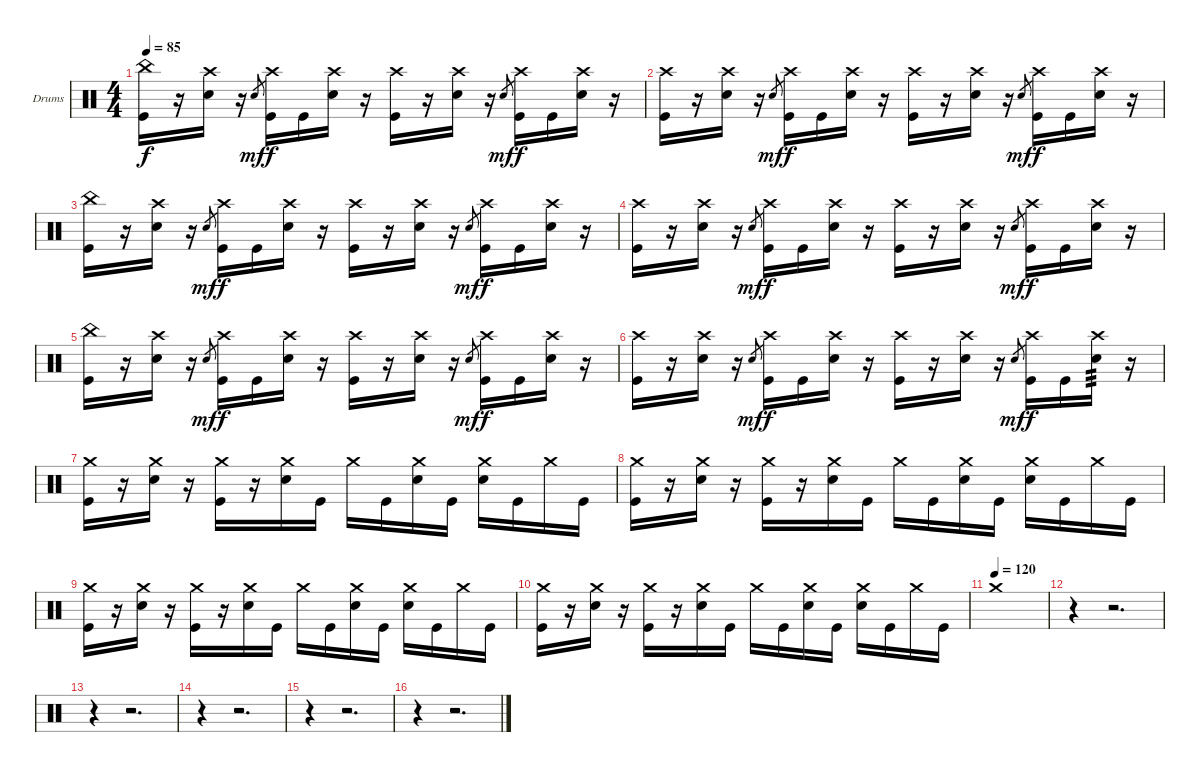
\defaultSystemsLayout 4
\bracketExtendMode groupsimilarinstruments
\firstSystemTrackNameOrientation horizontal
\otherSystemsTrackNameOrientation horizontal
\track ("Drumkit" "Drums") {instrument percussion}
\staff {score}
\articulation defaults
\ts (4 4)
\tempo 85
\clef neutral
\scale
0.333333
\ks c
("China (hit)" "Kick (hit)").16{dy f} r.16 ("Crash high (hit)" "Snare (hit) 2").16 r.16 "Snare (hit) 2".8{gr dy mf} ("Crash high (hit)" "Kick (hit)").16{dy f} "Kick (hit)".16 ("Crash high (hit)" "Snare (hit) 2").16 r.16 ("Crash high (hit)" "Kick (hit)").16 r.16 ("Crash high (hit)" "Snare (hit) 2").16 r.16 "Snare (hit) 2".8{gr dy mf} ("Crash high (hit)" "Kick (hit)").16{dy f} "Kick (hit)".16 ("Crash high (hit)" "Snare (hit) 2").16 r.16 |
\scale
0.333333 ("Crash high (hit)" "Kick (hit)").16 r.16 ("Crash high (hit)" "Snare (hit) 2").16 r.16 "Snare (hit) 2".8{gr dy mf} ("Crash high (hit)" "Kick (hit)").16{dy f} "Kick (hit)".16 ("Crash high (hit)" "Snare (hit) 2").16 r.16 ("Crash high (hit)" "Kick (hit)").16 r.16 ("Crash high (hit)" "Snare (hit) 2").16 r.16 "Snare (hit) 2".8{gr dy mf} ("Crash high (hit)" "Kick (hit)").16{dy f} "Kick (hit)".16 ("Crash high (hit)" "Snare (hit) 2").16 r.16 |
\scale
0.333333 ("China (hit)" "Kick (hit)").16 r.16 ("Crash high (hit)" "Snare (hit) 2").16 r.16 "Snare (hit) 2".8{gr dy mf} ("Crash high (hit)" "Kick (hit)").16{dy f} "Kick (hit)".16 ("Crash high (hit)" "Snare (hit) 2").16 r.16 ("Crash high (hit)" "Kick (hit)").16 r.16 ("Crash high (hit)" "Snare (hit) 2").16 r.16 "Snare (hit) 2".8{gr dy mf} ("Crash high (hit)" "Kick (hit)").16{dy f} "Kick (hit)".16 ("Crash high (hit)" "Snare (hit) 2").16 r.16 |
\scale
0.333333 ("Crash high (hit)" "Kick (hit)").16 r.16 ("Crash high (hit)" "Snare (hit) 2").16 r.16 "Snare (hit) 2".8{gr dy mf} ("Crash high (hit)" "Kick (hit)").16{dy f} "Kick (hit)".16 ("Crash high (hit)" "Snare (hit) 2").16 r.16 ("Crash high (hit)" "Kick (hit)").16 r.16 ("Crash high (hit)" "Snare (hit) 2").16 r.16 "Snare (hit) 2".8{gr dy mf} ("Crash high (hit)" "Kick (hit)").16{dy f} "Kick (hit)".16 ("Crash high (hit)" "Snare (hit) 2").16 r.16 |
\scale
0.333333 ("China (hit)" "Kick (hit)").16 r.16 ("Crash high (hit)" "Snare (hit) 2").16 r.16 "Snare (hit) 2".8{gr dy mf} ("Crash high (hit)" "Kick (hit)").16{dy f} "Kick (hit)".16 ("Crash high (hit)" "Snare (hit) 2").16 r.16 ("Crash high (hit)" "Kick (hit)").16 r.16 ("Crash high (hit)" "Snare (hit) 2").16 r.16 "Snare (hit) 2".8{gr dy mf} ("Crash high (hit)" "Kick (hit)").16{dy f} "Kick (hit)".16 ("Crash high (hit)" "Snare (hit) 2").16 r.16 |
\scale
0.333333 ("Crash high (hit)" "Kick (hit)").16 r.16 ("Crash high (hit)" "Snare (hit) 2").16 r.16 "Snare (hit) 2".8{gr dy mf} ("Crash high (hit)" "Kick (hit)").16{dy f} "Kick (hit)".16 ("Crash high (hit)" "Snare (hit) 2").16 r.16 ("Crash high (hit)" "Kick (hit)").16 r.16 ("Crash high (hit)" "Snare (hit) 2").16 r.16 "Snare (hit) 2".8{gr dy mf} ("Crash high (hit)" "Kick (hit)").16{dy f} "Kick (hit)".16 ("Crash high (hit)" "Snare (hit) 2").16{tp 3} r.16 |
\scale
0.333333 ("Crash medium (hit)" "Kick (hit)").16 r.16 ("Crash medium (hit)" "Snare (hit) 2").16 r.16 ("Crash medium (hit)" "Kick (hit)").16 r.16 ("Crash medium (hit)" "Snare (hit) 2").16 "Kick (hit)".16 "Crash medium (hit)".16 "Kick (hit)".16 ("Crash medium (hit)" "Snare (hit) 2").16 "Kick (hit)".16 ("Crash medium (hit)" "Snare (hit) 2").16 "Kick (hit)".16 "Crash medium (hit)".16 "Kick (hit)".16 |
\scale
0.333333 ("Crash medium (hit)" "Kick (hit)").16 r.16 ("Crash medium (hit)" "Snare (hit) 2").16 r.16 ("Crash medium (hit)" "Kick (hit)").16 r.16 ("Crash medium (hit)" "Snare (hit) 2").16 "Kick (hit)".16 "Crash medium (hit)".16 "Kick (hit)".16 ("Crash medium (hit)" "Snare (hit) 2").16 "Kick (hit)".16 ("Crash medium (hit)" "Snare (hit) 2").16 "Kick (hit)".16 "Crash medium (hit)".16 "Kick (hit)".16 |
\scale
0.333333 ("Crash medium (hit)" "Kick (hit)").16 r.16 ("Crash medium (hit)" "Snare (hit) 2").16 r.16 ("Crash medium (hit)" "Kick (hit)").16 r.16 ("Crash medium (hit)" "Snare (hit) 2").16 "Kick (hit)".16 "Crash medium (hit)".16 "Kick (hit)".16 ("Crash medium (hit)" "Snare (hit) 2").16 "Kick (hit)".16 ("Crash medium (hit)" "Snare (hit) 2").16 "Kick (hit)".16 "Crash medium (hit)".16 "Kick (hit)".16 |
\scale
0.333333 ("Crash medium (hit)" "Kick (hit)").16 r.16 ("Crash medium (hit)" "Snare (hit) 2").16 r.16 ("Crash medium (hit)" "Kick (hit)").16 r.16 ("Crash medium (hit)" "Snare (hit) 2").16 "Kick (hit)".16 "Crash medium (hit)".16 "Kick (hit)".16 ("Crash medium (hit)" "Snare (hit) 2").16 "Kick (hit)".16 ("Crash medium (hit)" "Snare (hit) 2").16 "Kick (hit)".16 "Crash medium (hit)".16 "Kick (hit)".16 |
\tempo 120
\scale
0.333333 "Crash medium (hit)".1 |
\scale
0.333333 r.4 r.2{d} |
\scale
0.333333 r.4 r.2{d} |
\scale
0.333333 r.4 r.2{d} |
\scale
0.333333 r.4 r.2{d} |
\scale
0.333333 r.4 r.2{d}
